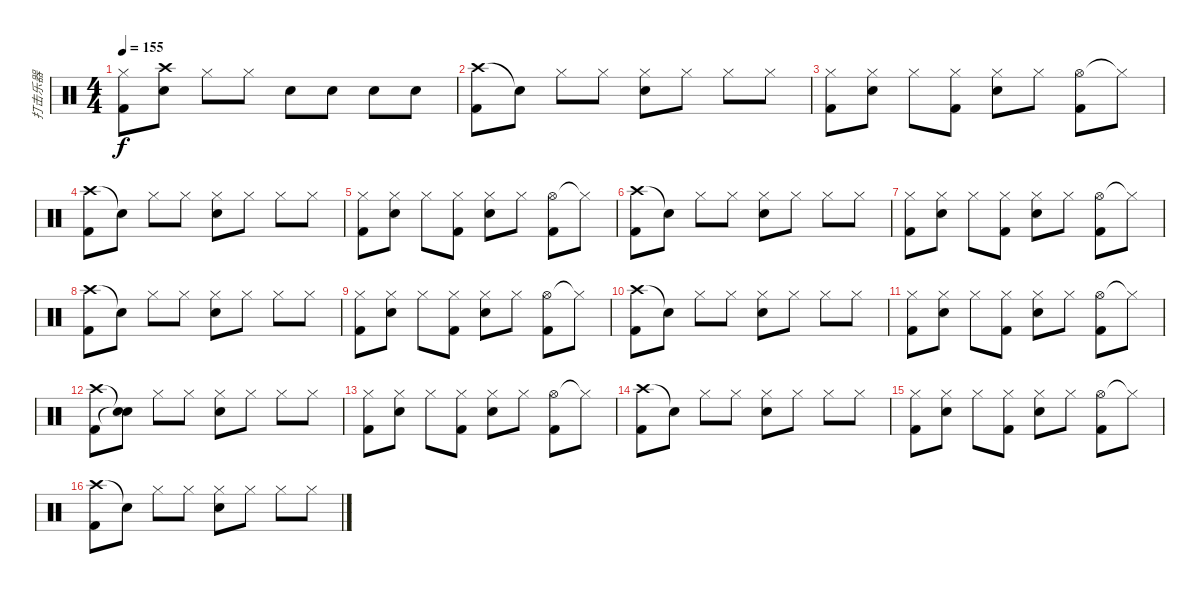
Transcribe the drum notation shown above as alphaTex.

\track ("打击乐器" "打击乐器") {instrument percussion}
\staff {score}
\articulation defaults
\ts (4 4)
\tempo 155
\clef neutral
\ks c
("Hi-Hat (closed)" "Kick (hit) 2").8{dy f} ("Crash high (hit)" "Snare (hit) 2").8 "Hi-Hat (closed)".8 "Hi-Hat (closed)".8 "Snare (hit) 2".8 "Snare (hit) 2".8 "Snare (hit) 2".8 "Snare (hit) 2".8 |
("Crash high (hit)" "Kick (hit) 2").8 "Snare (hit)"{t}.8 "Hi-Hat (closed)".8 "Hi-Hat (closed)".8 ("Hi-Hat (closed)" "Snare (hit) 2").8 "Hi-Hat (closed)".8 "Hi-Hat (closed)".8 "Hi-Hat (closed)".8 |
("Hi-Hat (closed)" "Kick (hit) 2").8 ("Hi-Hat (closed)" "Snare (hit) 2").8 "Hi-Hat (closed)".8 ("Hi-Hat (closed)" "Kick (hit) 2").8 ("Hi-Hat (closed)" "Snare (hit) 2").8 "Hi-Hat (closed)".8 ("Hi-Hat (open)" "Kick (hit) 2").8 "Hi-Hat (closed)"{t}.8 |
("Crash high (hit)" "Kick (hit) 2").8 "Snare (hit)"{t}.8 "Hi-Hat (closed)".8 "Hi-Hat (closed)".8 ("Hi-Hat (closed)" "Snare (hit) 2").8 "Hi-Hat (closed)".8 "Hi-Hat (closed)".8 "Hi-Hat (closed)".8 |
("Hi-Hat (closed)" "Kick (hit) 2").8 ("Hi-Hat (closed)" "Snare (hit) 2").8 "Hi-Hat (closed)".8 ("Hi-Hat (closed)" "Kick (hit) 2").8 ("Hi-Hat (closed)" "Snare (hit) 2").8 "Hi-Hat (closed)".8 ("Hi-Hat (open)" "Kick (hit) 2").8 "Hi-Hat (closed)"{t}.8 |
("Crash high (hit)" "Kick (hit) 2").8 "Snare (hit)"{t}.8 "Hi-Hat (closed)".8 "Hi-Hat (closed)".8 ("Hi-Hat (closed)" "Snare (hit) 2").8 "Hi-Hat (closed)".8 "Hi-Hat (closed)".8 "Hi-Hat (closed)".8 |
("Hi-Hat (closed)" "Kick (hit) 2").8 ("Hi-Hat (closed)" "Snare (hit) 2").8 "Hi-Hat (closed)".8 ("Hi-Hat (closed)" "Kick (hit) 2").8 ("Hi-Hat (closed)" "Snare (hit) 2").8 "Hi-Hat (closed)".8 ("Hi-Hat (open)" "Kick (hit) 2").8 "Hi-Hat (closed)"{t}.8 |
("Crash high (hit)" "Kick (hit) 2").8 "Snare (hit)"{t}.8 "Hi-Hat (closed)".8 "Hi-Hat (closed)".8 ("Hi-Hat (closed)" "Snare (hit) 2").8 "Hi-Hat (closed)".8 "Hi-Hat (closed)".8 "Hi-Hat (closed)".8 |
("Hi-Hat (closed)" "Kick (hit) 2").8 ("Hi-Hat (closed)" "Snare (hit) 2").8 "Hi-Hat (closed)".8 ("Hi-Hat (closed)" "Kick (hit) 2").8 ("Hi-Hat (closed)" "Snare (hit) 2").8 "Hi-Hat (closed)".8 ("Hi-Hat (open)" "Kick (hit) 2").8 "Hi-Hat (closed)"{t}.8 |
("Crash high (hit)" "Kick (hit) 2").8 "Snare (hit)"{t}.8 "Hi-Hat (closed)".8 "Hi-Hat (closed)".8 ("Hi-Hat (closed)" "Snare (hit) 2").8 "Hi-Hat (closed)".8 "Hi-Hat (closed)".8 "Hi-Hat (closed)".8 |
("Hi-Hat (closed)" "Kick (hit) 2").8 ("Hi-Hat (closed)" "Snare (hit) 2").8 "Hi-Hat (closed)".8 ("Hi-Hat (closed)" "Kick (hit) 2").8 ("Hi-Hat (closed)" "Snare (hit) 2").8 "Hi-Hat (closed)".8 ("Hi-Hat (open)" "Kick (hit) 2").8 "Hi-Hat (closed)"{t}.8 |
("Crash high (hit)" "Kick (hit) 2").8 ("Snare (hit)"{t} "Snare (hit)"{t}).8 "Hi-Hat (closed)".8 "Hi-Hat (closed)".8 ("Hi-Hat (closed)" "Snare (hit) 2").8 "Hi-Hat (closed)".8 "Hi-Hat (closed)".8 "Hi-Hat (closed)".8 |
("Hi-Hat (closed)" "Kick (hit) 2").8 ("Hi-Hat (closed)" "Snare (hit) 2").8 "Hi-Hat (closed)".8 ("Hi-Hat (closed)" "Kick (hit) 2").8 ("Hi-Hat (closed)" "Snare (hit) 2").8 "Hi-Hat (closed)".8 ("Hi-Hat (open)" "Kick (hit) 2").8 "Hi-Hat (closed)"{t}.8 |
("Crash high (hit)" "Kick (hit) 2").8 "Snare (hit)"{t}.8 "Hi-Hat (closed)".8 "Hi-Hat (closed)".8 ("Hi-Hat (closed)" "Snare (hit) 2").8 "Hi-Hat (closed)".8 "Hi-Hat (closed)".8 "Hi-Hat (closed)".8 |
("Hi-Hat (closed)" "Kick (hit) 2").8 ("Hi-Hat (closed)" "Snare (hit) 2").8 "Hi-Hat (closed)".8 ("Hi-Hat (closed)" "Kick (hit) 2").8 ("Hi-Hat (closed)" "Snare (hit) 2").8 "Hi-Hat (closed)".8 ("Hi-Hat (open)" "Kick (hit) 2").8 "Hi-Hat (closed)"{t}.8 |
("Crash high (hit)" "Kick (hit) 2").8 "Snare (hit)"{t}.8 "Hi-Hat (closed)".8 "Hi-Hat (closed)".8 ("Hi-Hat (closed)" "Snare (hit) 2").8 "Hi-Hat (closed)".8 "Hi-Hat (closed)".8 "Hi-Hat (closed)".8
